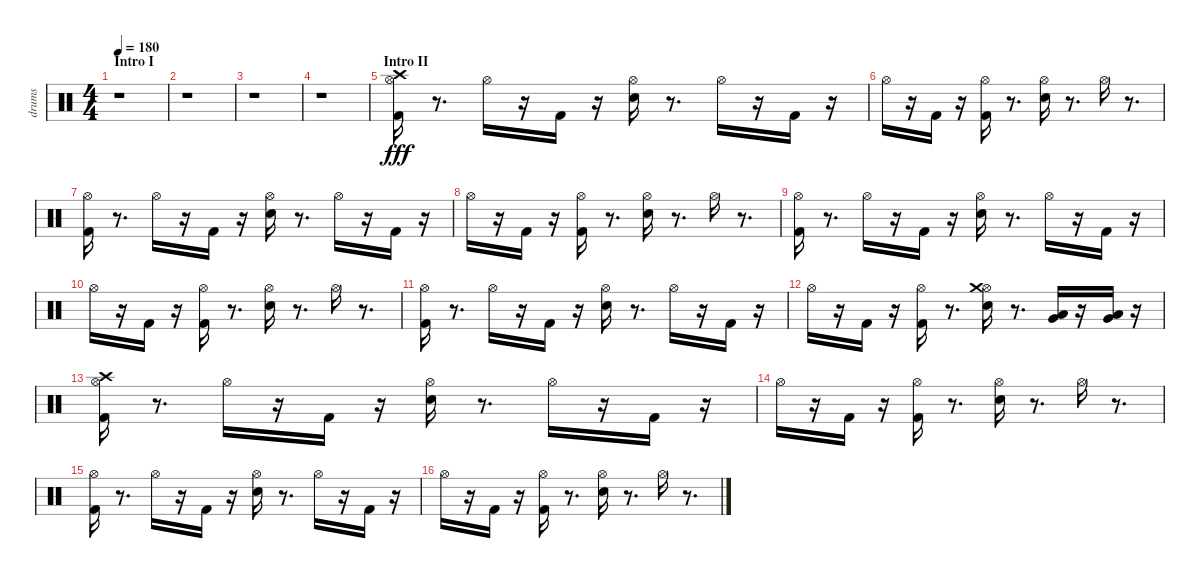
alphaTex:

\track ("drums" "drums") {instrument percussion}
\staff {score}
\articulation defaults
\ts (4 4)
\section ("" "Intro I")
\tempo 180
\clef neutral
\ks c
r.1{dy fff} |
r.1 |
r.1 |
r.1 |
\section ("" "Intro II")
("Kick (hit) 2" "Hi-Hat (open)" "Crash high (hit)").16 r.8{d} "Hi-Hat (open)".16 r.16 "Kick (hit) 2".16 r.16 ("Electric Snare (hit)" "Hi-Hat (open)").16 r.8{d} "Hi-Hat (open)".16 r.16 "Kick (hit) 2".16 r.16 |
"Hi-Hat (open)".16 r.16 "Kick (hit) 2".16 r.16 ("Hi-Hat (open)" "Kick (hit) 2").16 r.8{d} ("Hi-Hat (open)" "Electric Snare (hit)").16 r.8{d} "Hi-Hat (open)".16 r.8{d} |
("Kick (hit) 2" "Hi-Hat (open)").16 r.8{d} "Hi-Hat (open)".16 r.16 "Kick (hit) 2".16 r.16 ("Electric Snare (hit)" "Hi-Hat (open)").16 r.8{d} "Hi-Hat (open)".16 r.16 "Kick (hit) 2".16 r.16 |
"Hi-Hat (open)".16 r.16 "Kick (hit) 2".16 r.16 ("Hi-Hat (open)" "Kick (hit) 2").16 r.8{d} ("Hi-Hat (open)" "Electric Snare (hit)").16 r.8{d} "Hi-Hat (open)".16 r.8{d} |
("Kick (hit) 2" "Hi-Hat (open)").16 r.8{d} "Hi-Hat (open)".16 r.16 "Kick (hit) 2".16 r.16 ("Electric Snare (hit)" "Hi-Hat (open)").16 r.8{d} "Hi-Hat (open)".16 r.16 "Kick (hit) 2".16 r.16 |
"Hi-Hat (open)".16 r.16 "Kick (hit) 2".16 r.16 ("Hi-Hat (open)" "Kick (hit) 2").16 r.8{d} ("Hi-Hat (open)" "Electric Snare (hit)").16 r.8{d} "Hi-Hat (open)".16 r.8{d} |
("Kick (hit) 2" "Hi-Hat (open)").16 r.8{d} "Hi-Hat (open)".16 r.16 "Kick (hit) 2".16 r.16 ("Electric Snare (hit)" "Hi-Hat (open)").16 r.8{d} "Hi-Hat (open)".16 r.16 "Kick (hit) 2".16 r.16 |
"Hi-Hat (open)".16 r.16 "Kick (hit) 2".16 r.16 ("Hi-Hat (open)" "Kick (hit) 2").16 r.8{d} ("Hi-Hat (open)" "Electric Snare (hit)" "Crash medium (hit)").16 r.8{d} ("Low Tom (hit)" "Very Low Tom (hit)").16 r.16 ("Very Low Tom (hit)" "Low Floor Tom (hit)").16 r.16 |
("Crash high (hit)" "Kick (hit) 2" "Hi-Hat (open)").16 r.8{d} "Hi-Hat (open)".16 r.16 "Kick (hit) 2".16 r.16 ("Electric Snare (hit)" "Hi-Hat (open)").16 r.8{d} "Hi-Hat (open)".16 r.16 "Kick (hit) 2".16 r.16 |
"Hi-Hat (open)".16 r.16 "Kick (hit) 2".16 r.16 ("Hi-Hat (open)" "Kick (hit) 2").16 r.8{d} ("Hi-Hat (open)" "Electric Snare (hit)").16 r.8{d} "Hi-Hat (open)".16 r.8{d} |
("Kick (hit) 2" "Hi-Hat (open)").16 r.8{d} "Hi-Hat (open)".16 r.16 "Kick (hit) 2".16 r.16 ("Electric Snare (hit)" "Hi-Hat (open)").16 r.8{d} "Hi-Hat (open)".16 r.16 "Kick (hit) 2".16 r.16 |
"Hi-Hat (open)".16 r.16 "Kick (hit) 2".16 r.16 ("Hi-Hat (open)" "Kick (hit) 2").16 r.8{d} ("Hi-Hat (open)" "Electric Snare (hit)").16 r.8{d} "Hi-Hat (open)".16 r.8{d}
